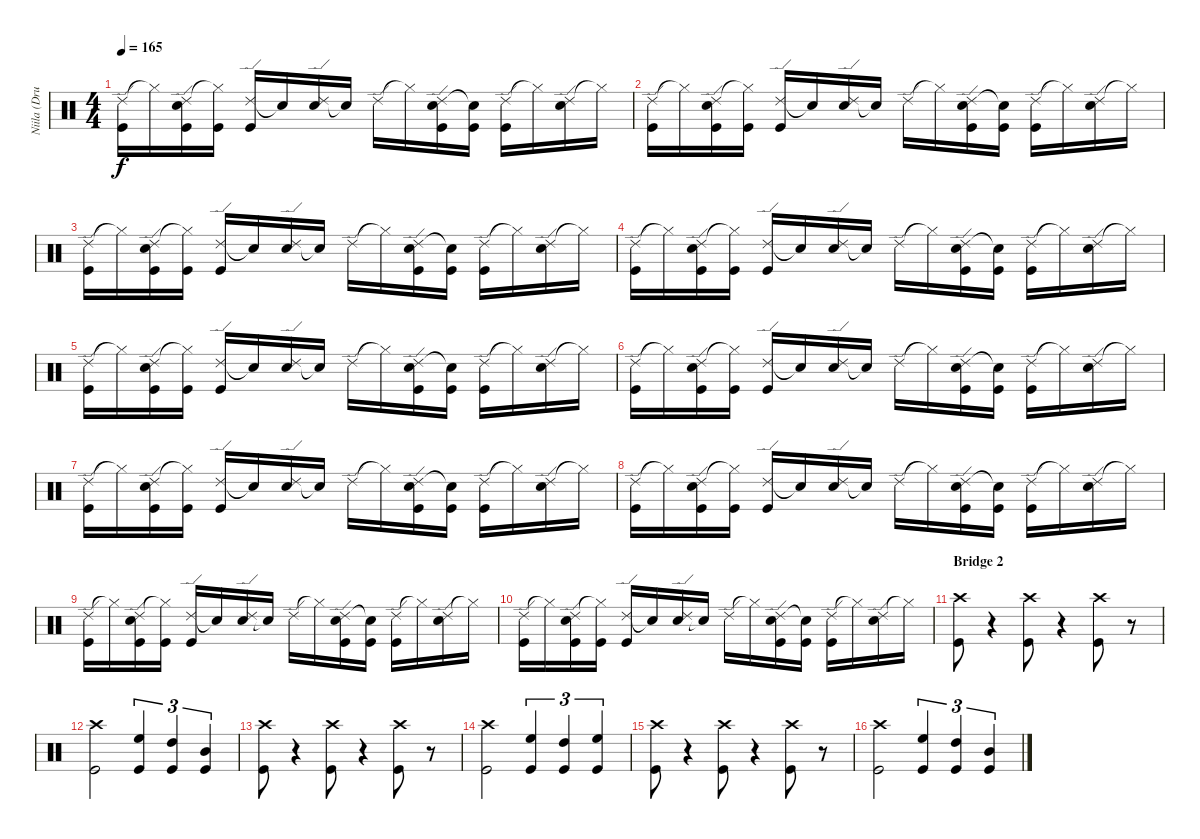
\track ("Niila (Drums)" "Niila (Dru") {instrument percussion}
\staff {score}
\articulation defaults
\ts (4 4)
\tempo 165
\clef neutral
\ks c
("Ride (edge) 2" "Kick (hit)").16{dy f} "Hi-Hat (closed)"{t}.16 ("Ride (edge) 2" "Snare (hit) 2" "Kick (hit)").16 ("Hi-Hat (closed)"{t} "Kick (hit)").16 ("Ride (edge) 2" "Kick (hit)").16 "Snare (hit)"{t}.16 ("Ride (edge) 2" "Snare (hit) 2").16 "Snare (hit)"{t}.16 "Ride (edge) 2".16 "Hi-Hat (closed)"{t}.16 ("Ride (edge) 2" "Snare (hit) 2" "Kick (hit)").16 ("Snare (hit)"{t} "Kick (hit)").16 ("Ride (edge) 2" "Kick (hit)").16 "Hi-Hat (closed)"{t}.16 ("Ride (edge) 2" "Snare (hit) 2").16 "Hi-Hat (closed)"{t}.16 |
("Ride (edge) 2" "Kick (hit)").16 "Hi-Hat (closed)"{t}.16 ("Ride (edge) 2" "Snare (hit) 2" "Kick (hit)").16 ("Hi-Hat (closed)"{t} "Kick (hit)").16 ("Ride (edge) 2" "Kick (hit)").16 "Snare (hit)"{t}.16 ("Ride (edge) 2" "Snare (hit) 2").16 "Snare (hit)"{t}.16 "Ride (edge) 2".16 "Hi-Hat (closed)"{t}.16 ("Ride (edge) 2" "Snare (hit) 2" "Kick (hit)").16 ("Snare (hit)"{t} "Kick (hit)").16 ("Ride (edge) 2" "Kick (hit)").16 "Hi-Hat (closed)"{t}.16 ("Ride (edge) 2" "Snare (hit) 2").16 "Hi-Hat (closed)"{t}.16 |
("Ride (edge) 2" "Kick (hit)").16 "Hi-Hat (closed)"{t}.16 ("Ride (edge) 2" "Snare (hit) 2" "Kick (hit)").16 ("Hi-Hat (closed)"{t} "Kick (hit)").16 ("Ride (edge) 2" "Kick (hit)").16 "Snare (hit)"{t}.16 ("Ride (edge) 2" "Snare (hit) 2").16 "Snare (hit)"{t}.16 "Ride (edge) 2".16 "Hi-Hat (closed)"{t}.16 ("Ride (edge) 2" "Snare (hit) 2" "Kick (hit)").16 ("Snare (hit)"{t} "Kick (hit)").16 ("Ride (edge) 2" "Kick (hit)").16 "Hi-Hat (closed)"{t}.16 ("Ride (edge) 2" "Snare (hit) 2").16 "Hi-Hat (closed)"{t}.16 |
("Ride (edge) 2" "Kick (hit)").16 "Hi-Hat (closed)"{t}.16 ("Ride (edge) 2" "Snare (hit) 2" "Kick (hit)").16 ("Hi-Hat (closed)"{t} "Kick (hit)").16 ("Ride (edge) 2" "Kick (hit)").16 "Snare (hit)"{t}.16 ("Ride (edge) 2" "Snare (hit) 2").16 "Snare (hit)"{t}.16 "Ride (edge) 2".16 "Hi-Hat (closed)"{t}.16 ("Ride (edge) 2" "Snare (hit) 2" "Kick (hit)").16 ("Snare (hit)"{t} "Kick (hit)").16 ("Ride (edge) 2" "Kick (hit)").16 "Hi-Hat (closed)"{t}.16 ("Ride (edge) 2" "Snare (hit) 2").16 "Hi-Hat (closed)"{t}.16 |
("Ride (edge) 2" "Kick (hit)").16 "Hi-Hat (closed)"{t}.16 ("Ride (edge) 2" "Snare (hit) 2" "Kick (hit)").16 ("Hi-Hat (closed)"{t} "Kick (hit)").16 ("Ride (edge) 2" "Kick (hit)").16 "Snare (hit)"{t}.16 ("Ride (edge) 2" "Snare (hit) 2").16 "Snare (hit)"{t}.16 "Ride (edge) 2".16 "Hi-Hat (closed)"{t}.16 ("Ride (edge) 2" "Snare (hit) 2" "Kick (hit)").16 ("Snare (hit)"{t} "Kick (hit)").16 ("Ride (edge) 2" "Kick (hit)").16 "Hi-Hat (closed)"{t}.16 ("Ride (edge) 2" "Snare (hit) 2").16 "Hi-Hat (closed)"{t}.16 |
("Ride (edge) 2" "Kick (hit)").16 "Hi-Hat (closed)"{t}.16 ("Ride (edge) 2" "Snare (hit) 2" "Kick (hit)").16 ("Hi-Hat (closed)"{t} "Kick (hit)").16 ("Ride (edge) 2" "Kick (hit)").16 "Snare (hit)"{t}.16 ("Ride (edge) 2" "Snare (hit) 2").16 "Snare (hit)"{t}.16 "Ride (edge) 2".16 "Hi-Hat (closed)"{t}.16 ("Ride (edge) 2" "Snare (hit) 2" "Kick (hit)").16 ("Snare (hit)"{t} "Kick (hit)").16 ("Ride (edge) 2" "Kick (hit)").16 "Hi-Hat (closed)"{t}.16 ("Ride (edge) 2" "Snare (hit) 2").16 "Hi-Hat (closed)"{t}.16 |
("Ride (edge) 2" "Kick (hit)").16 "Hi-Hat (closed)"{t}.16 ("Ride (edge) 2" "Snare (hit) 2" "Kick (hit)").16 ("Hi-Hat (closed)"{t} "Kick (hit)").16 ("Ride (edge) 2" "Kick (hit)").16 "Snare (hit)"{t}.16 ("Ride (edge) 2" "Snare (hit) 2").16 "Snare (hit)"{t}.16 "Ride (edge) 2".16 "Hi-Hat (closed)"{t}.16 ("Ride (edge) 2" "Snare (hit) 2" "Kick (hit)").16 ("Snare (hit)"{t} "Kick (hit)").16 ("Ride (edge) 2" "Kick (hit)").16 "Hi-Hat (closed)"{t}.16 ("Ride (edge) 2" "Snare (hit) 2").16 "Hi-Hat (closed)"{t}.16 |
("Ride (edge) 2" "Kick (hit)").16 "Hi-Hat (closed)"{t}.16 ("Ride (edge) 2" "Snare (hit) 2" "Kick (hit)").16 ("Hi-Hat (closed)"{t} "Kick (hit)").16 ("Ride (edge) 2" "Kick (hit)").16 "Snare (hit)"{t}.16 ("Ride (edge) 2" "Snare (hit) 2").16 "Snare (hit)"{t}.16 "Ride (edge) 2".16 "Hi-Hat (closed)"{t}.16 ("Ride (edge) 2" "Snare (hit) 2" "Kick (hit)").16 ("Snare (hit)"{t} "Kick (hit)").16 ("Ride (edge) 2" "Kick (hit)").16 "Hi-Hat (closed)"{t}.16 ("Ride (edge) 2" "Snare (hit) 2").16 "Hi-Hat (closed)"{t}.16 |
("Ride (edge) 2" "Kick (hit)").16 "Hi-Hat (closed)"{t}.16 ("Ride (edge) 2" "Snare (hit) 2" "Kick (hit)").16 ("Hi-Hat (closed)"{t} "Kick (hit)").16 ("Ride (edge) 2" "Kick (hit)").16 "Snare (hit)"{t}.16 ("Ride (edge) 2" "Snare (hit) 2").16 "Snare (hit)"{t}.16 "Ride (edge) 2".16 "Hi-Hat (closed)"{t}.16 ("Ride (edge) 2" "Snare (hit) 2" "Kick (hit)").16 ("Snare (hit)"{t} "Kick (hit)").16 ("Ride (edge) 2" "Kick (hit)").16 "Hi-Hat (closed)"{t}.16 ("Ride (edge) 2" "Snare (hit) 2").16 "Hi-Hat (closed)"{t}.16 |
("Ride (edge) 2" "Kick (hit)").16 "Hi-Hat (closed)"{t}.16 ("Ride (edge) 2" "Snare (hit) 2" "Kick (hit)").16 ("Hi-Hat (closed)"{t} "Kick (hit)").16 ("Ride (edge) 2" "Kick (hit)").16 "Snare (hit)"{t}.16 ("Ride (edge) 2" "Snare (hit) 2").16 "Snare (hit)"{t}.16 "Ride (edge) 2".16 "Hi-Hat (closed)"{t}.16 ("Ride (edge) 2" "Snare (hit) 2" "Kick (hit)").16 ("Snare (hit)"{t} "Kick (hit)").16 ("Ride (edge) 2" "Kick (hit)").16 "Hi-Hat (closed)"{t}.16 ("Ride (edge) 2" "Snare (hit) 2").16 "Hi-Hat (closed)"{t}.16 |
\section ("" "Bridge 2")
("Crash high (hit)" "Kick (hit)").8 r.4 ("Crash high (hit)" "Kick (hit)").8 r.4 ("Crash high (hit)" "Kick (hit)").8 r.8 |
("Crash high (hit)" "Kick (hit)").2 ("High Floor Tom (hit)" "Kick (hit)").4{tu (3 2)} ("High Tom (hit)" "Kick (hit)").4{tu (3 2)} ("Mid Tom (hit)" "Kick (hit)").4{tu (3 2)} |
("Crash high (hit)" "Kick (hit)").8 r.4 ("Crash high (hit)" "Kick (hit)").8 r.4 ("Crash high (hit)" "Kick (hit)").8 r.8 |
("Crash high (hit)" "Kick (hit)").2 ("High Floor Tom (hit)" "Kick (hit)").4{tu (3 2)} ("High Tom (hit)" "Kick (hit)").4{tu (3 2)} ("High Floor Tom (hit)" "Kick (hit)").4{tu (3 2)} |
("Crash high (hit)" "Kick (hit)").8 r.4 ("Crash high (hit)" "Kick (hit)").8 r.4 ("Crash high (hit)" "Kick (hit)").8 r.8 |
("Crash high (hit)" "Kick (hit)").2 ("High Floor Tom (hit)" "Kick (hit)").4{tu (3 2)} ("High Tom (hit)" "Kick (hit)").4{tu (3 2)} ("Mid Tom (hit)" "Kick (hit)").4{tu (3 2)}
